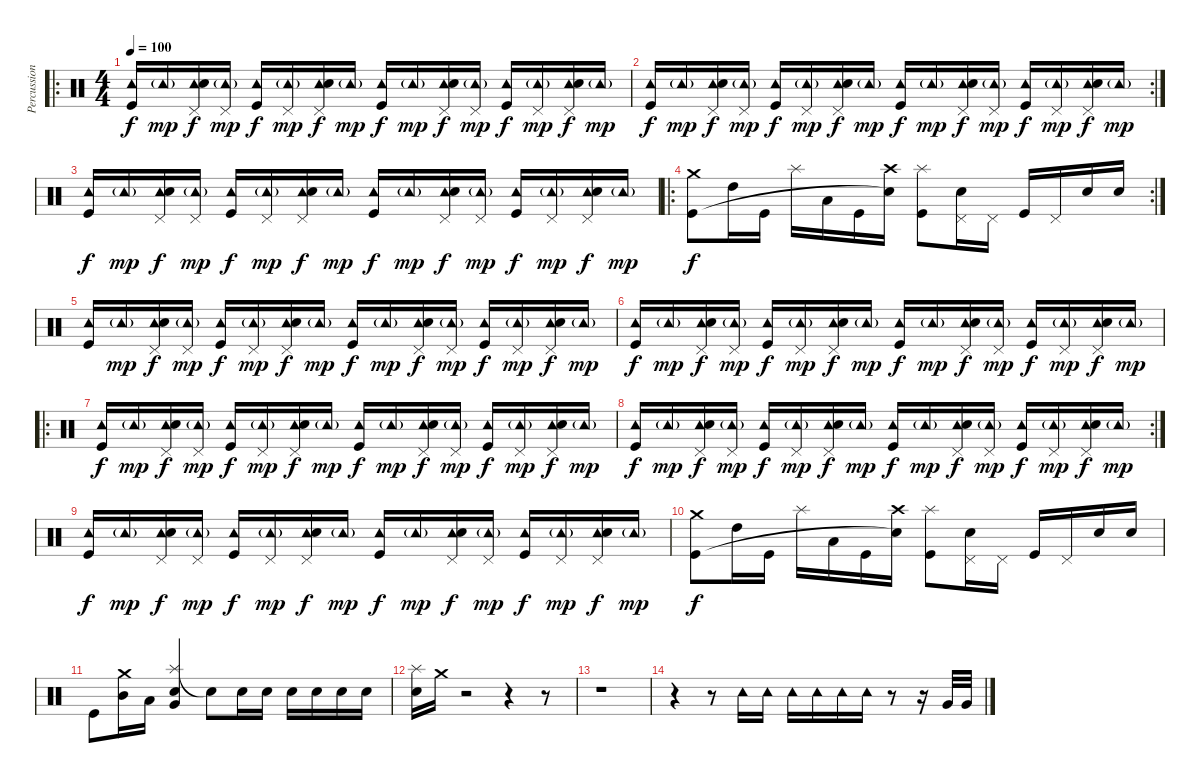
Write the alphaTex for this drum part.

\track ("Percussions" "Percussion") {instrument percussion}
\staff {score}
\articulation defaults
\ro
\ts (4 4)
\tempo 100
\clef neutral
\ks c
("Tambourine (hit)" "Kick (hit)").16{dy f} "Tambourine (hit)"{g}.16{dy mp} ("Pedal Hi-Hat (hit)" "Tambourine (hit)" "Snare (hit) 2").16{dy f} ("Pedal Hi-Hat (hit)" "Tambourine (hit)"{g}).16{dy mp} ("Tambourine (hit)" "Kick (hit)").16{dy f} ("Pedal Hi-Hat (hit)" "Tambourine (hit)"{g}).16{dy mp} ("Pedal Hi-Hat (hit)" "Tambourine (hit)" "Snare (hit) 2").16{dy f} "Tambourine (hit)"{g}.16{dy mp} ("Tambourine (hit)" "Kick (hit)").16{dy f} "Tambourine (hit)"{g}.16{dy mp} ("Pedal Hi-Hat (hit)" "Tambourine (hit)" "Snare (hit) 2").16{dy f} ("Pedal Hi-Hat (hit)" "Tambourine (hit)"{g}).16{dy mp} ("Tambourine (hit)" "Kick (hit)").16{dy f} ("Pedal Hi-Hat (hit)" "Tambourine (hit)"{g}).16{dy mp} ("Pedal Hi-Hat (hit)" "Tambourine (hit)" "Snare (hit) 2").16{dy f} "Tambourine (hit)"{g}.16{dy mp} |
\rc 2
("Tambourine (hit)" "Kick (hit)").16{dy f} "Tambourine (hit)"{g}.16{dy mp} ("Pedal Hi-Hat (hit)" "Tambourine (hit)" "Snare (hit) 2").16{dy f} ("Pedal Hi-Hat (hit)" "Tambourine (hit)"{g}).16{dy mp} ("Tambourine (hit)" "Kick (hit)").16{dy f} ("Pedal Hi-Hat (hit)" "Tambourine (hit)"{g}).16{dy mp} ("Pedal Hi-Hat (hit)" "Tambourine (hit)" "Snare (hit) 2").16{dy f} "Tambourine (hit)"{g}.16{dy mp} ("Tambourine (hit)" "Kick (hit)").16{dy f} "Tambourine (hit)"{g}.16{dy mp} ("Pedal Hi-Hat (hit)" "Tambourine (hit)" "Snare (hit) 2").16{dy f} ("Pedal Hi-Hat (hit)" "Tambourine (hit)"{g}).16{dy mp} ("Tambourine (hit)" "Kick (hit)").16{dy f} ("Pedal Hi-Hat (hit)" "Tambourine (hit)"{g}).16{dy mp} ("Pedal Hi-Hat (hit)" "Tambourine (hit)" "Snare (hit) 2").16{dy f} "Tambourine (hit)"{g}.16{dy mp} |
("Tambourine (hit)" "Kick (hit)").16{dy f} "Tambourine (hit)"{g}.16{dy mp} ("Pedal Hi-Hat (hit)" "Tambourine (hit)" "Snare (hit) 2").16{dy f} ("Pedal Hi-Hat (hit)" "Tambourine (hit)"{g}).16{dy mp} ("Tambourine (hit)" "Kick (hit)").16{dy f} ("Pedal Hi-Hat (hit)" "Tambourine (hit)"{g}).16{dy mp} ("Pedal Hi-Hat (hit)" "Tambourine (hit)" "Snare (hit) 2").16{dy f} "Tambourine (hit)"{g}.16{dy mp} ("Tambourine (hit)" "Kick (hit)").16{dy f} "Tambourine (hit)"{g}.16{dy mp} ("Pedal Hi-Hat (hit)" "Tambourine (hit)" "Snare (hit) 2").16{dy f} ("Pedal Hi-Hat (hit)" "Tambourine (hit)"{g}).16{dy mp} ("Tambourine (hit)" "Kick (hit)").16{dy f} ("Pedal Hi-Hat (hit)" "Tambourine (hit)"{g}).16{dy mp} ("Pedal Hi-Hat (hit)" "Tambourine (hit)" "Snare (hit) 2").16{dy f} "Tambourine (hit)"{g}.16{dy mp} |
\ro
\rc 2
("Crash medium (hit)" "Kick (hit)").8{dy f} "High Tom (hit)".16 "Kick (hit)".16 "Splash (hit)".16 "Low Tom (hit)".16 "Kick (hit)".16 ("Crash high (hit)" "Snare (hit)"{t}).16 ("Splash (hit)" "Kick (hit)").8 ("Pedal Hi-Hat (hit)" "Snare (hit) 2").16 "Pedal Hi-Hat (hit)".16 "Kick (hit)".16 "Pedal Hi-Hat (hit)".16 "Snare (hit) 2".16 "Snare (hit) 2".16 |
("Tambourine (hit)" "Kick (hit)").16 "Tambourine (hit)"{g}.16{dy mp} ("Pedal Hi-Hat (hit)" "Tambourine (hit)" "Snare (hit) 2").16{dy f} ("Pedal Hi-Hat (hit)" "Tambourine (hit)"{g}).16{dy mp} ("Tambourine (hit)" "Kick (hit)").16{dy f} ("Pedal Hi-Hat (hit)" "Tambourine (hit)"{g}).16{dy mp} ("Pedal Hi-Hat (hit)" "Tambourine (hit)" "Snare (hit) 2").16{dy f} "Tambourine (hit)"{g}.16{dy mp} ("Tambourine (hit)" "Kick (hit)").16{dy f} "Tambourine (hit)"{g}.16{dy mp} ("Pedal Hi-Hat (hit)" "Tambourine (hit)" "Snare (hit) 2").16{dy f} ("Pedal Hi-Hat (hit)" "Tambourine (hit)"{g}).16{dy mp} ("Tambourine (hit)" "Kick (hit)").16{dy f} ("Pedal Hi-Hat (hit)" "Tambourine (hit)"{g}).16{dy mp} ("Pedal Hi-Hat (hit)" "Tambourine (hit)" "Snare (hit) 2").16{dy f} "Tambourine (hit)"{g}.16{dy mp} |
("Tambourine (hit)" "Kick (hit)").16{dy f} "Tambourine (hit)"{g}.16{dy mp} ("Pedal Hi-Hat (hit)" "Tambourine (hit)" "Snare (hit) 2").16{dy f} ("Pedal Hi-Hat (hit)" "Tambourine (hit)"{g}).16{dy mp} ("Tambourine (hit)" "Kick (hit)").16{dy f} ("Pedal Hi-Hat (hit)" "Tambourine (hit)"{g}).16{dy mp} ("Pedal Hi-Hat (hit)" "Tambourine (hit)" "Snare (hit) 2").16{dy f} "Tambourine (hit)"{g}.16{dy mp} ("Tambourine (hit)" "Kick (hit)").16{dy f} "Tambourine (hit)"{g}.16{dy mp} ("Pedal Hi-Hat (hit)" "Tambourine (hit)" "Snare (hit) 2").16{dy f} ("Pedal Hi-Hat (hit)" "Tambourine (hit)"{g}).16{dy mp} ("Tambourine (hit)" "Kick (hit)").16{dy f} ("Pedal Hi-Hat (hit)" "Tambourine (hit)"{g}).16{dy mp} ("Pedal Hi-Hat (hit)" "Tambourine (hit)" "Snare (hit) 2").16{dy f} "Tambourine (hit)"{g}.16{dy mp} |
\ro
("Tambourine (hit)" "Kick (hit)").16{dy f} "Tambourine (hit)"{g}.16{dy mp} ("Pedal Hi-Hat (hit)" "Tambourine (hit)" "Snare (hit) 2").16{dy f} ("Pedal Hi-Hat (hit)" "Tambourine (hit)"{g}).16{dy mp} ("Tambourine (hit)" "Kick (hit)").16{dy f} ("Pedal Hi-Hat (hit)" "Tambourine (hit)"{g}).16{dy mp} ("Pedal Hi-Hat (hit)" "Tambourine (hit)" "Snare (hit) 2").16{dy f} "Tambourine (hit)"{g}.16{dy mp} ("Tambourine (hit)" "Kick (hit)").16{dy f} "Tambourine (hit)"{g}.16{dy mp} ("Pedal Hi-Hat (hit)" "Tambourine (hit)" "Snare (hit) 2").16{dy f} ("Pedal Hi-Hat (hit)" "Tambourine (hit)"{g}).16{dy mp} ("Tambourine (hit)" "Kick (hit)").16{dy f} ("Pedal Hi-Hat (hit)" "Tambourine (hit)"{g}).16{dy mp} ("Pedal Hi-Hat (hit)" "Tambourine (hit)" "Snare (hit) 2").16{dy f} "Tambourine (hit)"{g}.16{dy mp} |
\rc 2
("Tambourine (hit)" "Kick (hit)").16{dy f} "Tambourine (hit)"{g}.16{dy mp} ("Pedal Hi-Hat (hit)" "Tambourine (hit)" "Snare (hit) 2").16{dy f} ("Pedal Hi-Hat (hit)" "Tambourine (hit)"{g}).16{dy mp} ("Tambourine (hit)" "Kick (hit)").16{dy f} ("Pedal Hi-Hat (hit)" "Tambourine (hit)"{g}).16{dy mp} ("Pedal Hi-Hat (hit)" "Tambourine (hit)" "Snare (hit) 2").16{dy f} "Tambourine (hit)"{g}.16{dy mp} ("Tambourine (hit)" "Kick (hit)").16{dy f} "Tambourine (hit)"{g}.16{dy mp} ("Pedal Hi-Hat (hit)" "Tambourine (hit)" "Snare (hit) 2").16{dy f} ("Pedal Hi-Hat (hit)" "Tambourine (hit)"{g}).16{dy mp} ("Tambourine (hit)" "Kick (hit)").16{dy f} ("Pedal Hi-Hat (hit)" "Tambourine (hit)"{g}).16{dy mp} ("Pedal Hi-Hat (hit)" "Tambourine (hit)" "Snare (hit) 2").16{dy f} "Tambourine (hit)"{g}.16{dy mp} |
("Tambourine (hit)" "Kick (hit)").16{dy f} "Tambourine (hit)"{g}.16{dy mp} ("Pedal Hi-Hat (hit)" "Tambourine (hit)" "Snare (hit) 2").16{dy f} ("Pedal Hi-Hat (hit)" "Tambourine (hit)"{g}).16{dy mp} ("Tambourine (hit)" "Kick (hit)").16{dy f} ("Pedal Hi-Hat (hit)" "Tambourine (hit)"{g}).16{dy mp} ("Pedal Hi-Hat (hit)" "Tambourine (hit)" "Snare (hit) 2").16{dy f} "Tambourine (hit)"{g}.16{dy mp} ("Tambourine (hit)" "Kick (hit)").16{dy f} "Tambourine (hit)"{g}.16{dy mp} ("Pedal Hi-Hat (hit)" "Tambourine (hit)" "Snare (hit) 2").16{dy f} ("Pedal Hi-Hat (hit)" "Tambourine (hit)"{g}).16{dy mp} ("Tambourine (hit)" "Kick (hit)").16{dy f} ("Pedal Hi-Hat (hit)" "Tambourine (hit)"{g}).16{dy mp} ("Pedal Hi-Hat (hit)" "Tambourine (hit)" "Snare (hit) 2").16{dy f} "Tambourine (hit)"{g}.16{dy mp} |
("Crash medium (hit)" "Kick (hit)").8{dy f} "High Tom (hit)".16 "Kick (hit)".16 "Splash (hit)".16 "Low Tom (hit)".16 "Kick (hit)".16 ("Crash high (hit)" "Snare (hit)"{t}).16 ("Splash (hit)" "Kick (hit)").8 ("Pedal Hi-Hat (hit)" "Snare (hit) 2").16 "Pedal Hi-Hat (hit)".16 "Kick (hit)".16 "Pedal Hi-Hat (hit)".16 "Snare (hit) 2".16 "Snare (hit) 2".16 |
"Kick (hit)".8 ("Crash medium (hit)" "Mid Tom (hit)").16 "Low Tom (hit)".16 ("Splash (hit)" "Very Low Tom (hit)" "Snare (hit) 2").4 "Snare (hit)"{t}.8 "Snare (hit) 2".16 "Snare (hit) 2".16 "Snare (hit) 2".16 "Snare (hit) 2".16 "Snare (hit) 2".16 "Snare (hit) 2".16 |
("Splash (hit)" "Snare (hit) 2").16 "Crash medium (hit)".16 r.2 r.4 r.8 |
r.1 |
r.4 r.8 "Tambourine (hit)".16 "Tambourine (hit)".16 "Tambourine (hit)".16 "Tambourine (hit)".16 "Tambourine (hit)".16 "Tambourine (hit)".16 r.8 r.16 "Very Low Tom (hit)".32 "Very Low Tom (hit)".32
